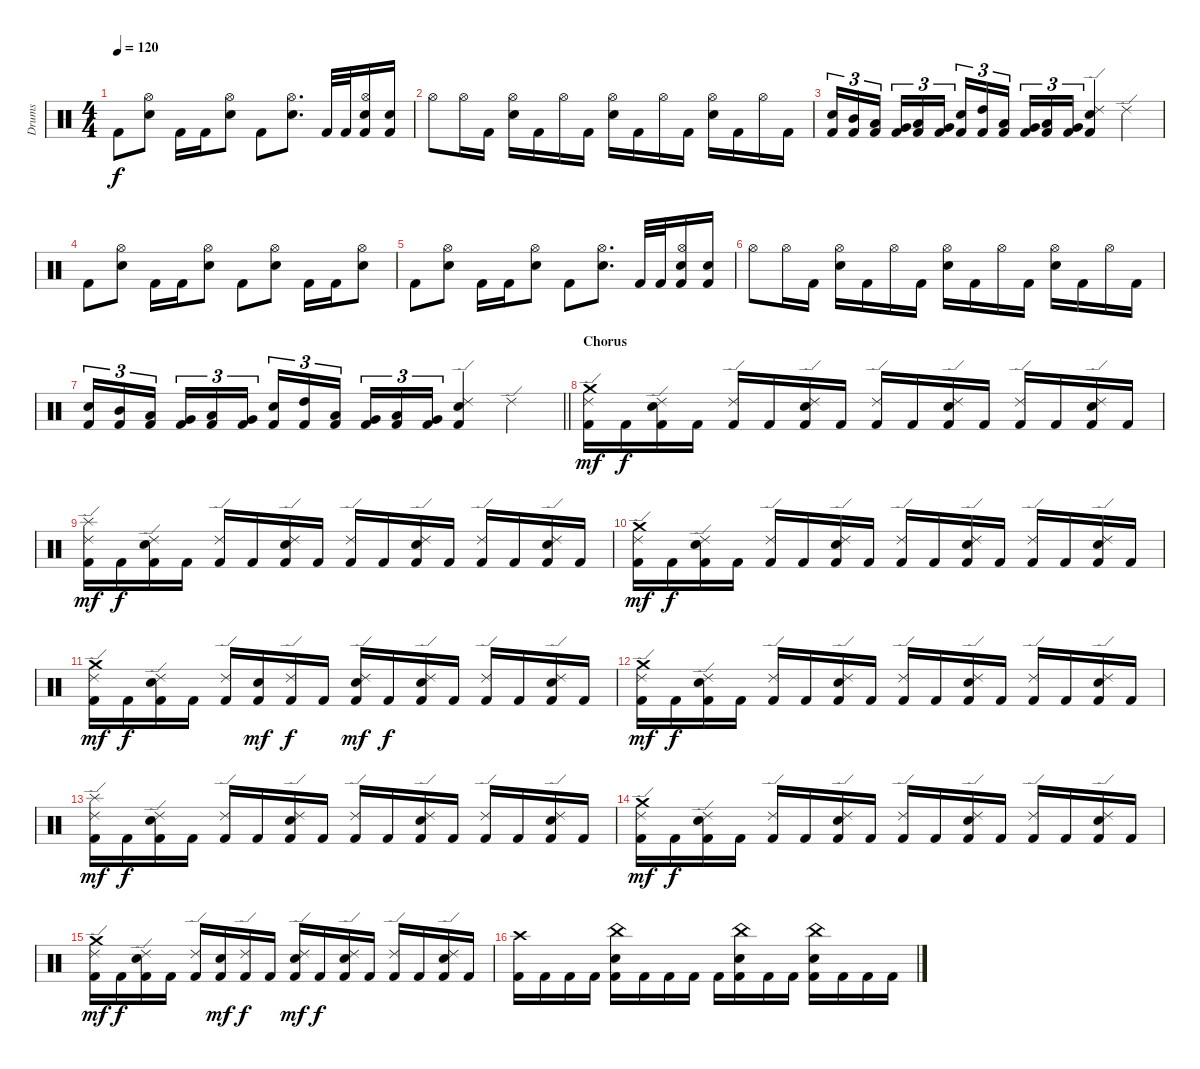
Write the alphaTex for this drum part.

\track ("Drums" "Drums") {instrument percussion}
\staff {score}
\articulation defaults
\ts (4 4)
\tempo 120
\clef neutral
\ks c "Kick (hit) 2".8{dy f}
("Hi-Hat (open)" "Electric Snare (hit)").8 "Kick (hit) 2".16 "Kick (hit) 2".16 ("Hi-Hat (open)" "Electric Snare (hit)").8 "Kick (hit) 2".8 ("Hi-Hat (open)" "Electric Snare (hit)").8{d} "Kick (hit) 2".32 "Kick (hit) 2".32 ("Hi-Hat (open)" "Electric Snare (hit)" "Kick (hit) 2").16 ("Electric Snare (hit)" "Kick (hit) 2").16 |
"Hi-Hat (open)".8 "Hi-Hat (open)".16 "Kick (hit) 2".16 ("Hi-Hat (open)" "Electric Snare (hit)").16 "Kick (hit) 2".16 "Hi-Hat (open)".16 "Kick (hit) 2".16 ("Hi-Hat (open)" "Electric Snare (hit)").16 "Kick (hit) 2".16 "Hi-Hat (open)".16 "Kick (hit) 2".16 ("Hi-Hat (open)" "Electric Snare (hit)").16 "Kick (hit) 2".16 "Hi-Hat (open)".16 "Kick (hit) 2".16 |
("Electric Snare (hit)" "Kick (hit) 2").16{tu (3 2)} ("Mid Tom (hit)" "Kick (hit) 2").16{tu (3 2)} ("Low Tom (hit)" "Kick (hit) 2").16{tu (3 2) beam splitsecondary} ("Very Low Tom (hit)" "Kick (hit) 2").16{tu (3 2)} ("Low Tom (hit)" "Kick (hit) 2").16{tu (3 2)} ("Very Low Tom (hit)" "Kick (hit) 2").16{tu (3 2)} ("Electric Snare (hit)" "Kick (hit) 2").16{tu (3 2)} ("High Tom (hit)" "Kick (hit) 2").16{tu (3 2)} ("Low Tom (hit)" "Kick (hit) 2").16{tu (3 2) beam splitsecondary} ("Very Low Tom (hit)" "Kick (hit) 2").16{tu (3 2)} ("Low Floor Tom (hit)" "Kick (hit) 2").16{tu (3 2)} ("Very Low Tom (hit)" "Kick (hit) 2").16{tu (3 2)} ("Ride (edge) 2" "Electric Snare (hit)" "Kick (hit) 2").4 "Ride (edge) 2".4 |
"Kick (hit) 2".8 ("Hi-Hat (open)" "Electric Snare (hit)").8 "Kick (hit) 2".16 "Kick (hit) 2".16 ("Hi-Hat (open)" "Electric Snare (hit)").8 "Kick (hit) 2".8 ("Hi-Hat (open)" "Electric Snare (hit)").8 "Kick (hit) 2".16 "Kick (hit) 2".16 ("Hi-Hat (open)" "Electric Snare (hit)").8 |
"Kick (hit) 2".8 ("Hi-Hat (open)" "Electric Snare (hit)").8 "Kick (hit) 2".16 "Kick (hit) 2".16 ("Hi-Hat (open)" "Electric Snare (hit)").8 "Kick (hit) 2".8 ("Hi-Hat (open)" "Electric Snare (hit)").8{d} "Kick (hit) 2".32 "Kick (hit) 2".32 ("Hi-Hat (open)" "Electric Snare (hit)" "Kick (hit) 2").16 ("Electric Snare (hit)" "Kick (hit) 2").16 |
"Hi-Hat (open)".8 "Hi-Hat (open)".16 "Kick (hit) 2".16 ("Hi-Hat (open)" "Electric Snare (hit)").16 "Kick (hit) 2".16 "Hi-Hat (open)".16 "Kick (hit) 2".16 ("Hi-Hat (open)" "Electric Snare (hit)").16 "Kick (hit) 2".16 "Hi-Hat (open)".16 "Kick (hit) 2".16 ("Hi-Hat (open)" "Electric Snare (hit)").16 "Kick (hit) 2".16 "Hi-Hat (open)".16 "Kick (hit) 2".16 |
\barLineRight lightlight
("Electric Snare (hit)" "Kick (hit) 2").16{tu (3 2)} ("Mid Tom (hit)" "Kick (hit) 2").16{tu (3 2)} ("Low Tom (hit)" "Kick (hit) 2").16{tu (3 2) beam splitsecondary} ("Very Low Tom (hit)" "Kick (hit) 2").16{tu (3 2)} ("Low Tom (hit)" "Kick (hit) 2").16{tu (3 2)} ("Very Low Tom (hit)" "Kick (hit) 2").16{tu (3 2)} ("Electric Snare (hit)" "Kick (hit) 2").16{tu (3 2)} ("High Tom (hit)" "Kick (hit) 2").16{tu (3 2)} ("Low Tom (hit)" "Kick (hit) 2").16{tu (3 2) beam splitsecondary} ("Very Low Tom (hit)" "Kick (hit) 2").16{tu (3 2)} ("Low Floor Tom (hit)" "Kick (hit) 2").16{tu (3 2)} ("Very Low Tom (hit)" "Kick (hit) 2").16{tu (3 2)} ("Ride (edge) 2" "Electric Snare (hit)" "Kick (hit) 2").4 "Ride (edge) 2".4 |
\section ("" "Chorus")
("Ride (edge) 2" "Crash medium (hit)" "Kick (hit) 2").16{dy mf} "Kick (hit) 2".16{dy f} ("Ride (edge) 2" "Electric Snare (hit)" "Kick (hit) 2").16 "Kick (hit) 2".16 ("Ride (edge) 2" "Kick (hit) 2").16 "Kick (hit) 2".16 ("Ride (edge) 2" "Electric Snare (hit)" "Kick (hit) 2").16 "Kick (hit) 2".16 ("Ride (edge) 2" "Kick (hit) 2").16 "Kick (hit) 2".16 ("Ride (edge) 2" "Electric Snare (hit)" "Kick (hit) 2").16 "Kick (hit) 2".16 ("Ride (edge) 2" "Kick (hit) 2").16 "Kick (hit) 2".16 ("Ride (edge) 2" "Electric Snare (hit)" "Kick (hit) 2").16 "Kick (hit) 2".16 |
("Ride (edge) 2" "Splash (hit)" "Kick (hit) 2").16{dy mf} "Kick (hit) 2".16{dy f} ("Ride (edge) 2" "Electric Snare (hit)" "Kick (hit) 2").16 "Kick (hit) 2".16 ("Ride (edge) 2" "Kick (hit) 2").16 "Kick (hit) 2".16 ("Ride (edge) 2" "Electric Snare (hit)" "Kick (hit) 2").16 "Kick (hit) 2".16 ("Ride (edge) 2" "Kick (hit) 2").16 "Kick (hit) 2".16 ("Ride (edge) 2" "Electric Snare (hit)" "Kick (hit) 2").16 "Kick (hit) 2".16 ("Ride (edge) 2" "Kick (hit) 2").16 "Kick (hit) 2".16 ("Ride (edge) 2" "Electric Snare (hit)" "Kick (hit) 2").16 "Kick (hit) 2".16 |
("Ride (edge) 2" "Crash medium (hit)" "Kick (hit) 2").16{dy mf} "Kick (hit) 2".16{dy f} ("Ride (edge) 2" "Electric Snare (hit)" "Kick (hit) 2").16 "Kick (hit) 2".16 ("Ride (edge) 2" "Kick (hit) 2").16 "Kick (hit) 2".16 ("Ride (edge) 2" "Electric Snare (hit)" "Kick (hit) 2").16 "Kick (hit) 2".16 ("Ride (edge) 2" "Kick (hit) 2").16 "Kick (hit) 2".16 ("Ride (edge) 2" "Electric Snare (hit)" "Kick (hit) 2").16 "Kick (hit) 2".16 ("Ride (edge) 2" "Kick (hit) 2").16 "Kick (hit) 2".16 ("Ride (edge) 2" "Electric Snare (hit)" "Kick (hit) 2").16 "Kick (hit) 2".16 |
("Ride (edge) 2" "Crash medium (hit)" "Kick (hit) 2").16{dy mf} "Kick (hit) 2".16{dy f} ("Ride (edge) 2" "Electric Snare (hit)" "Kick (hit) 2").16 "Kick (hit) 2".16 ("Ride (edge) 2" "Kick (hit) 2").16 ("Electric Snare (hit)" "Kick (hit) 2").16{dy mf} ("Ride (edge) 2" "Kick (hit) 2").16{dy f} "Kick (hit) 2".16 ("Ride (edge) 2" "Electric Snare (hit)" "Kick (hit) 2").16{dy mf} "Kick (hit) 2".16{dy f} ("Ride (edge) 2" "Electric Snare (hit)" "Kick (hit) 2").16 "Kick (hit) 2".16 ("Ride (edge) 2" "Kick (hit) 2").16 "Kick (hit) 2".16 ("Ride (edge) 2" "Electric Snare (hit)" "Kick (hit) 2").16 "Kick (hit) 2".16 |
("Ride (edge) 2" "Crash medium (hit)" "Kick (hit) 2").16{dy mf} "Kick (hit) 2".16{dy f} ("Ride (edge) 2" "Electric Snare (hit)" "Kick (hit) 2").16 "Kick (hit) 2".16 ("Ride (edge) 2" "Kick (hit) 2").16 "Kick (hit) 2".16 ("Ride (edge) 2" "Electric Snare (hit)" "Kick (hit) 2").16 "Kick (hit) 2".16 ("Ride (edge) 2" "Kick (hit) 2").16 "Kick (hit) 2".16 ("Ride (edge) 2" "Electric Snare (hit)" "Kick (hit) 2").16 "Kick (hit) 2".16 ("Ride (edge) 2" "Kick (hit) 2").16 "Kick (hit) 2".16 ("Ride (edge) 2" "Electric Snare (hit)" "Kick (hit) 2").16 "Kick (hit) 2".16 |
("Ride (edge) 2" "Splash (hit)" "Kick (hit) 2").16{dy mf} "Kick (hit) 2".16{dy f} ("Ride (edge) 2" "Electric Snare (hit)" "Kick (hit) 2").16 "Kick (hit) 2".16 ("Ride (edge) 2" "Kick (hit) 2").16 "Kick (hit) 2".16 ("Ride (edge) 2" "Electric Snare (hit)" "Kick (hit) 2").16 "Kick (hit) 2".16 ("Ride (edge) 2" "Kick (hit) 2").16 "Kick (hit) 2".16 ("Ride (edge) 2" "Electric Snare (hit)" "Kick (hit) 2").16 "Kick (hit) 2".16 ("Ride (edge) 2" "Kick (hit) 2").16 "Kick (hit) 2".16 ("Ride (edge) 2" "Electric Snare (hit)" "Kick (hit) 2").16 "Kick (hit) 2".16 |
("Ride (edge) 2" "Crash medium (hit)" "Kick (hit) 2").16{dy mf} "Kick (hit) 2".16{dy f} ("Ride (edge) 2" "Electric Snare (hit)" "Kick (hit) 2").16 "Kick (hit) 2".16 ("Ride (edge) 2" "Kick (hit) 2").16 "Kick (hit) 2".16 ("Ride (edge) 2" "Electric Snare (hit)" "Kick (hit) 2").16 "Kick (hit) 2".16 ("Ride (edge) 2" "Kick (hit) 2").16 "Kick (hit) 2".16 ("Ride (edge) 2" "Electric Snare (hit)" "Kick (hit) 2").16 "Kick (hit) 2".16 ("Ride (edge) 2" "Kick (hit) 2").16 "Kick (hit) 2".16 ("Ride (edge) 2" "Electric Snare (hit)" "Kick (hit) 2").16 "Kick (hit) 2".16 |
("Ride (edge) 2" "Crash medium (hit)" "Kick (hit) 2").16{dy mf} "Kick (hit) 2".16{dy f} ("Ride (edge) 2" "Electric Snare (hit)" "Kick (hit) 2").16 "Kick (hit) 2".16 ("Ride (edge) 2" "Kick (hit) 2").16 ("Electric Snare (hit)" "Kick (hit) 2").16{dy mf} ("Ride (edge) 2" "Kick (hit) 2").16{dy f} "Kick (hit) 2".16 ("Ride (edge) 2" "Electric Snare (hit)" "Kick (hit) 2").16{dy mf} "Kick (hit) 2".16{dy f} ("Ride (edge) 2" "Electric Snare (hit)" "Kick (hit) 2").16 "Kick (hit) 2".16 ("Ride (edge) 2" "Kick (hit) 2").16 "Kick (hit) 2".16 ("Ride (edge) 2" "Electric Snare (hit)" "Kick (hit) 2").16 "Kick (hit) 2".16 |
("Crash high (hit)" "Kick (hit) 2").16 "Kick (hit) 2".16 "Kick (hit) 2".16 "Kick (hit) 2".16 ("China (hit)" "Electric Snare (hit)" "Kick (hit) 2").16 "Kick (hit) 2".16 "Kick (hit) 2".16 "Kick (hit) 2".16 "Kick (hit) 2".16 ("China (hit)" "Electric Snare (hit)" "Kick (hit) 2").16 "Kick (hit) 2".16 "Kick (hit) 2".16 ("China (hit)" "Electric Snare (hit)" "Kick (hit) 2").16 "Kick (hit) 2".16 "Kick (hit) 2".16 "Kick (hit) 2".16
